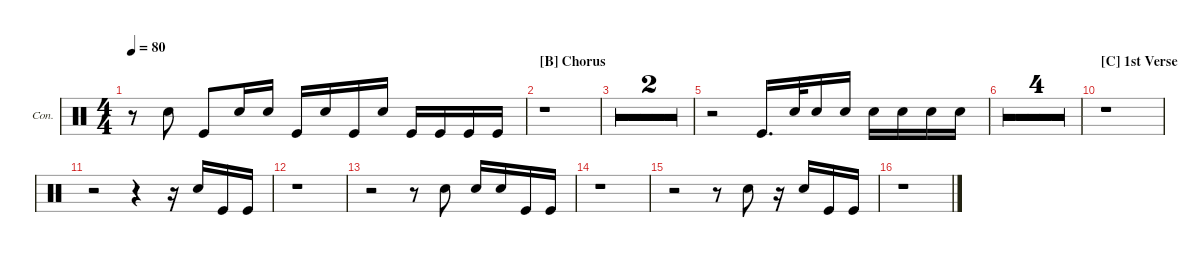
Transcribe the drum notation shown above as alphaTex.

\defaultSystemsLayout 4
\hideDynamics
\bracketExtendMode groupsimilarinstruments
\firstSystemTrackNameOrientation horizontal
\otherSystemsTrackNameOrientation horizontal
\track ("Congas" "Con.") {multiBarRest instrument percussion}
\staff {score}
\articulation defaults
\ts (4 4)
\tempo 80
\clef neutral
\ks c
r.8{dy mf} "Snare (hit) 2".8 "Kick (hit)".8 "Snare (hit) 2".16 "Snare (hit) 2".16 "Kick (hit)".16 "Snare (hit) 2".16 "Kick (hit)".16 "Snare (hit) 2".16 "Kick (hit)".16 "Kick (hit)".16 "Kick (hit)".16 "Kick (hit)".16 |
\section ("B" "Chorus")
r.1 |
r.1 |
r.1 |
r.2 "Kick (hit)".16{d} "Snare (hit) 2".32 "Snare (hit) 2".16 "Snare (hit) 2".16 "Snare (hit) 2".16 "Snare (hit) 2".16 "Snare (hit) 2".16 "Snare (hit) 2".16 |
r.1 |
r.1 |
r.1 |
r.1 |
\section ("C" "1st Verse")
r.1 |
r.2 r.4 r.16 "Snare (hit) 2".16 "Kick (hit)".16 "Kick (hit)".16 |
r.1 |
r.2 r.8 "Snare (hit) 2".8 "Snare (hit) 2".16 "Snare (hit) 2".16 "Kick (hit)".16 "Kick (hit)".16 |
r.1 |
r.2 r.8 "Snare (hit) 2".8 r.16 "Snare (hit) 2".16 "Kick (hit)".16 "Kick (hit)".16 |
r.1
